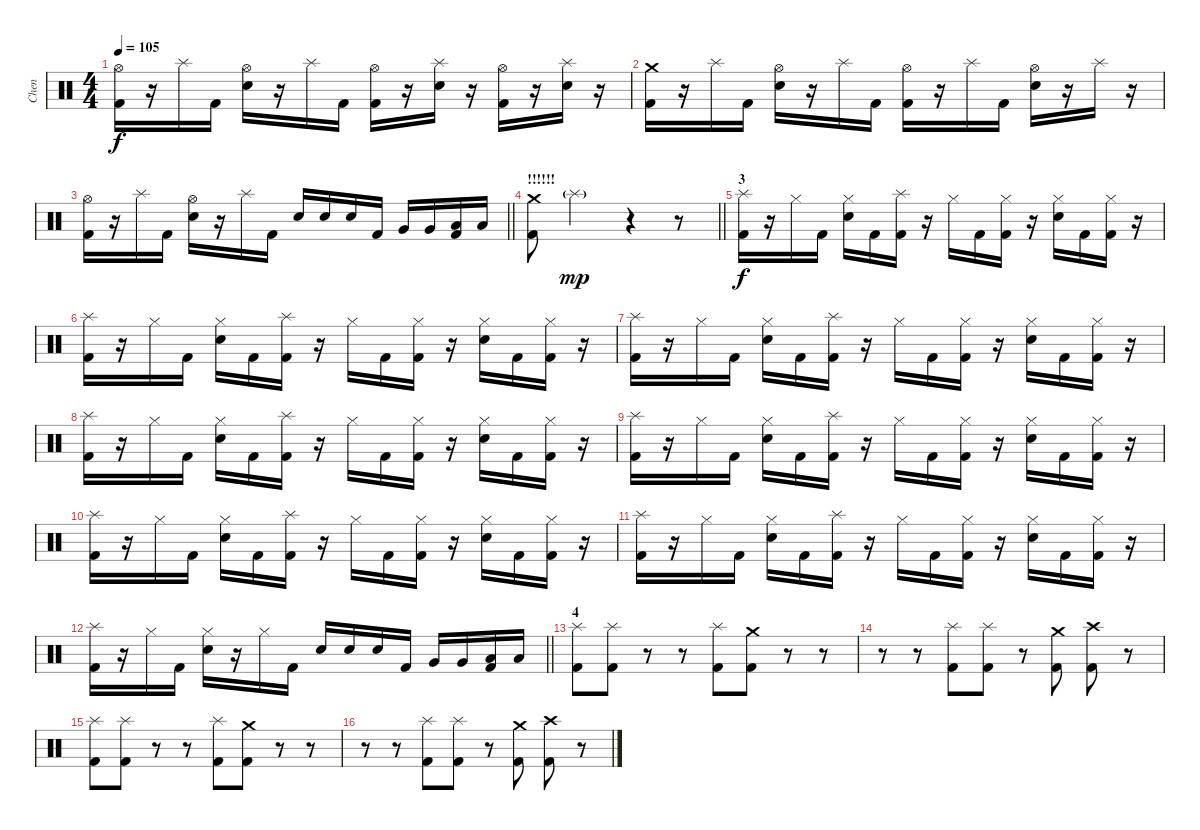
\track ("Chen" "Chen") {instrument percussion}
\staff {score}
\articulation defaults
\ts (4 4)
\tempo 105
\clef neutral
\ks c
("Hi-Hat (open)" "Kick (hit) 2").16{dy f} r.16 "Splash (hit)".16 "Kick (hit) 2".16 ("Hi-Hat (open)" "Electric Snare (hit)").16 r.16 "Splash (hit)".16 "Kick (hit) 2".16 ("Hi-Hat (open)" "Kick (hit) 2").16 r.16 ("Splash (hit)" "Electric Snare (hit)").16 r.16 ("Hi-Hat (open)" "Kick (hit) 2").16 r.16 ("Splash (hit)" "Electric Snare (hit)").16 r.16 |
("Crash medium (hit)" "Kick (hit) 2").16 r.16 "Splash (hit)".16 "Kick (hit) 2".16 ("Hi-Hat (open)" "Electric Snare (hit)").16 r.16 "Splash (hit)".16 "Kick (hit) 2".16 ("Hi-Hat (open)" "Kick (hit) 2").16 r.16 "Splash (hit)".16 "Kick (hit) 2".16 ("Hi-Hat (open)" "Electric Snare (hit)").16 r.16 "Splash (hit)".16 r.16 |
\barLineRight lightlight
("Hi-Hat (open)" "Kick (hit) 2").16 r.16 "Splash (hit)".16 "Kick (hit) 2".16 ("Hi-Hat (open)" "Electric Snare (hit)").16 r.16 "Splash (hit)".16 "Kick (hit) 2".16 "Electric Snare (hit)".16 "Electric Snare (hit)".16 "Electric Snare (hit)".16 "Kick (hit) 2".16 "Very Low Tom (hit)".16 "Very Low Tom (hit)".16 ("Low Tom (hit)" "Kick (hit) 2").16 "Low Tom (hit)".16 |
\section ("" "!!!!!!")
\barLineRight lightlight
("Crash medium (hit)" "Kick (hit) 2").8 "Splash (hit)"{g}.2{dy mp} r.4 r.8 |
\section ("" "3")
("Splash (hit)" "Kick (hit) 2").16{dy f} r.16 "Hi-Hat (closed)".16 "Kick (hit) 2".16 ("Hi-Hat (closed)" "Electric Snare (hit)").16 "Kick (hit) 2".16 ("Splash (hit)" "Kick (hit) 2").16 r.16 "Hi-Hat (closed)".16 "Kick (hit) 2".16 ("Hi-Hat (closed)" "Kick (hit) 2").16 r.16 ("Hi-Hat (closed)" "Electric Snare (hit)").16 "Kick (hit) 2".16 ("Hi-Hat (closed)" "Kick (hit) 2").16 r.16 |
("Splash (hit)" "Kick (hit) 2").16 r.16 "Hi-Hat (closed)".16 "Kick (hit) 2".16 ("Hi-Hat (closed)" "Electric Snare (hit)").16 "Kick (hit) 2".16 ("Splash (hit)" "Kick (hit) 2").16 r.16 "Hi-Hat (closed)".16 "Kick (hit) 2".16 ("Hi-Hat (closed)" "Kick (hit) 2").16 r.16 ("Hi-Hat (closed)" "Electric Snare (hit)").16 "Kick (hit) 2".16 ("Hi-Hat (closed)" "Kick (hit) 2").16 r.16 |
("Splash (hit)" "Kick (hit) 2").16 r.16 "Hi-Hat (closed)".16 "Kick (hit) 2".16 ("Hi-Hat (closed)" "Electric Snare (hit)").16 "Kick (hit) 2".16 ("Splash (hit)" "Kick (hit) 2").16 r.16 "Hi-Hat (closed)".16 "Kick (hit) 2".16 ("Hi-Hat (closed)" "Kick (hit) 2").16 r.16 ("Hi-Hat (closed)" "Electric Snare (hit)").16 "Kick (hit) 2".16 ("Hi-Hat (closed)" "Kick (hit) 2").16 r.16 |
("Splash (hit)" "Kick (hit) 2").16 r.16 "Hi-Hat (closed)".16 "Kick (hit) 2".16 ("Hi-Hat (closed)" "Electric Snare (hit)").16 "Kick (hit) 2".16 ("Splash (hit)" "Kick (hit) 2").16 r.16 "Hi-Hat (closed)".16 "Kick (hit) 2".16 ("Hi-Hat (closed)" "Kick (hit) 2").16 r.16 ("Hi-Hat (closed)" "Electric Snare (hit)").16 "Kick (hit) 2".16 ("Hi-Hat (closed)" "Kick (hit) 2").16 r.16 |
("Splash (hit)" "Kick (hit) 2").16 r.16 "Hi-Hat (closed)".16 "Kick (hit) 2".16 ("Hi-Hat (closed)" "Electric Snare (hit)").16 "Kick (hit) 2".16 ("Splash (hit)" "Kick (hit) 2").16 r.16 "Hi-Hat (closed)".16 "Kick (hit) 2".16 ("Hi-Hat (closed)" "Kick (hit) 2").16 r.16 ("Hi-Hat (closed)" "Electric Snare (hit)").16 "Kick (hit) 2".16 ("Hi-Hat (closed)" "Kick (hit) 2").16 r.16 |
("Splash (hit)" "Kick (hit) 2").16 r.16 "Hi-Hat (closed)".16 "Kick (hit) 2".16 ("Hi-Hat (closed)" "Electric Snare (hit)").16 "Kick (hit) 2".16 ("Splash (hit)" "Kick (hit) 2").16 r.16 "Hi-Hat (closed)".16 "Kick (hit) 2".16 ("Hi-Hat (closed)" "Kick (hit) 2").16 r.16 ("Hi-Hat (closed)" "Electric Snare (hit)").16 "Kick (hit) 2".16 ("Hi-Hat (closed)" "Kick (hit) 2").16 r.16 |
("Splash (hit)" "Kick (hit) 2").16 r.16 "Hi-Hat (closed)".16 "Kick (hit) 2".16 ("Hi-Hat (closed)" "Electric Snare (hit)").16 "Kick (hit) 2".16 ("Splash (hit)" "Kick (hit) 2").16 r.16 "Hi-Hat (closed)".16 "Kick (hit) 2".16 ("Hi-Hat (closed)" "Kick (hit) 2").16 r.16 ("Hi-Hat (closed)" "Electric Snare (hit)").16 "Kick (hit) 2".16 ("Hi-Hat (closed)" "Kick (hit) 2").16 r.16 |
\barLineRight lightlight
("Splash (hit)" "Kick (hit) 2").16 r.16 "Hi-Hat (closed)".16 "Kick (hit) 2".16 ("Hi-Hat (closed)" "Electric Snare (hit)").16 r.16 "Hi-Hat (closed)".16 "Kick (hit) 2".16 "Electric Snare (hit)".16 "Electric Snare (hit)".16 "Electric Snare (hit)".16 "Kick (hit) 2".16 "Very Low Tom (hit)".16 "Very Low Tom (hit)".16 ("Low Tom (hit)" "Kick (hit) 2").16 "Low Tom (hit)".16 |
\section ("" "4")
("Splash (hit)" "Kick (hit) 2").8 ("Splash (hit)" "Kick (hit) 2").8 r.8 r.8 ("Splash (hit)" "Kick (hit) 2").8 ("Crash medium (hit)" "Kick (hit) 2").8 r.8 r.8 |
r.8 r.8 ("Splash (hit)" "Kick (hit) 2").8 ("Splash (hit)" "Kick (hit) 2").8 r.8 ("Crash medium (hit)" "Kick (hit) 2").8 ("Crash high (hit)" "Kick (hit) 2").8 r.8 |
("Splash (hit)" "Kick (hit) 2").8 ("Splash (hit)" "Kick (hit) 2").8 r.8 r.8 ("Splash (hit)" "Kick (hit) 2").8 ("Crash medium (hit)" "Kick (hit) 2").8 r.8 r.8 |
r.8 r.8 ("Splash (hit)" "Kick (hit) 2").8 ("Splash (hit)" "Kick (hit) 2").8 r.8 ("Crash medium (hit)" "Kick (hit) 2").8 ("Crash high (hit)" "Kick (hit) 2").8 r.8
